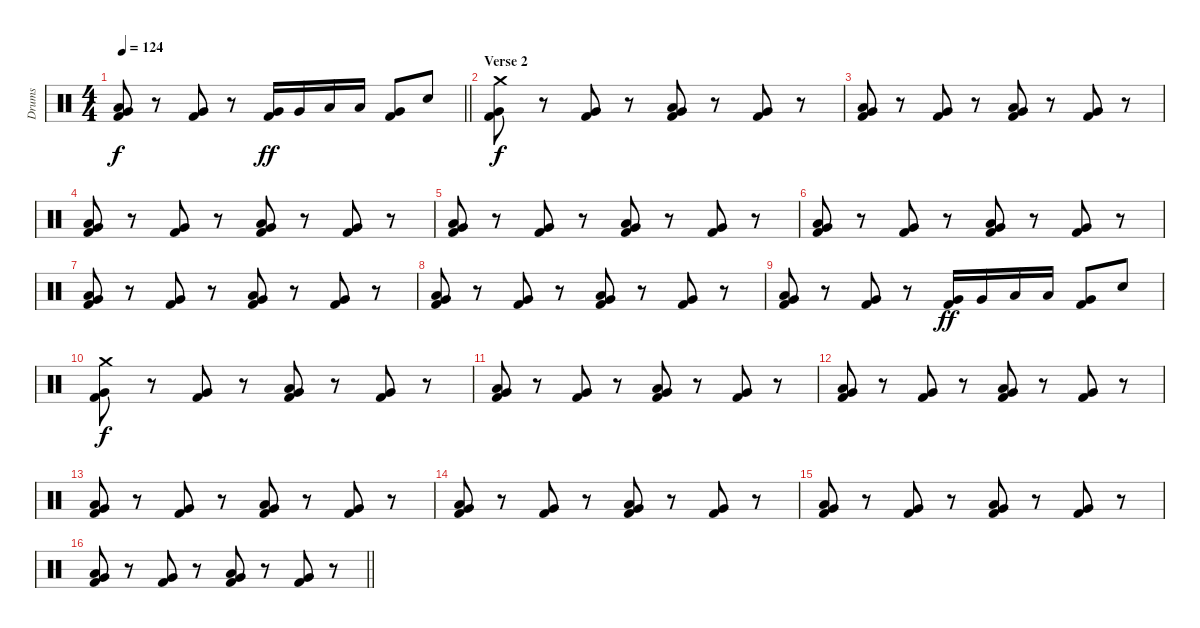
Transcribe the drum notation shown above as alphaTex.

\track ("Drums" "Drums") {instrument percussion}
\staff {score}
\articulation defaults
\ts (4 4)
\tempo 124
\clef neutral
\barLineRight lightlight
\ks c
("Very Low Tom (hit)" "Low Floor Tom (hit)" "Kick (hit) 2").8{dy f} r.8 ("Very Low Tom (hit)" "Kick (hit) 2").8 r.8 ("Very Low Tom (hit)" "Kick (hit) 2").16{dy ff} "Very Low Tom (hit)".16 "Low Floor Tom (hit)".16 "Low Floor Tom (hit)".16 ("Very Low Tom (hit)" "Kick (hit) 2").8 "Electric Snare (hit)".8 |
\section ("" "Verse 2")
("Crash medium (hit)" "Very Low Tom (hit)" "Kick (hit) 2").8{dy f} r.8 ("Very Low Tom (hit)" "Kick (hit) 2").8 r.8 ("Very Low Tom (hit)" "Low Floor Tom (hit)" "Kick (hit) 2").8 r.8 ("Very Low Tom (hit)" "Kick (hit) 2").8 r.8 |
("Very Low Tom (hit)" "Low Floor Tom (hit)" "Kick (hit) 2").8 r.8 ("Very Low Tom (hit)" "Kick (hit) 2").8 r.8 ("Very Low Tom (hit)" "Low Floor Tom (hit)" "Kick (hit) 2").8 r.8 ("Very Low Tom (hit)" "Kick (hit) 2").8 r.8 |
("Very Low Tom (hit)" "Low Floor Tom (hit)" "Kick (hit) 2").8 r.8 ("Very Low Tom (hit)" "Kick (hit) 2").8 r.8 ("Very Low Tom (hit)" "Low Floor Tom (hit)" "Kick (hit) 2").8 r.8 ("Very Low Tom (hit)" "Kick (hit) 2").8 r.8 |
("Very Low Tom (hit)" "Low Floor Tom (hit)" "Kick (hit) 2").8 r.8 ("Very Low Tom (hit)" "Kick (hit) 2").8 r.8 ("Very Low Tom (hit)" "Low Floor Tom (hit)" "Kick (hit) 2").8 r.8 ("Very Low Tom (hit)" "Kick (hit) 2").8 r.8 |
("Very Low Tom (hit)" "Low Floor Tom (hit)" "Kick (hit) 2").8 r.8 ("Very Low Tom (hit)" "Kick (hit) 2").8 r.8 ("Very Low Tom (hit)" "Low Floor Tom (hit)" "Kick (hit) 2").8 r.8 ("Very Low Tom (hit)" "Kick (hit) 2").8 r.8 |
("Very Low Tom (hit)" "Low Floor Tom (hit)" "Kick (hit) 2").8 r.8 ("Very Low Tom (hit)" "Kick (hit) 2").8 r.8 ("Very Low Tom (hit)" "Low Floor Tom (hit)" "Kick (hit) 2").8 r.8 ("Very Low Tom (hit)" "Kick (hit) 2").8 r.8 |
("Very Low Tom (hit)" "Low Floor Tom (hit)" "Kick (hit) 2").8 r.8 ("Very Low Tom (hit)" "Kick (hit) 2").8 r.8 ("Very Low Tom (hit)" "Low Floor Tom (hit)" "Kick (hit) 2").8 r.8 ("Very Low Tom (hit)" "Kick (hit) 2").8 r.8 |
("Very Low Tom (hit)" "Low Floor Tom (hit)" "Kick (hit) 2").8 r.8 ("Very Low Tom (hit)" "Kick (hit) 2").8 r.8 ("Very Low Tom (hit)" "Kick (hit) 2").16{dy ff} "Very Low Tom (hit)".16 "Low Floor Tom (hit)".16 "Low Floor Tom (hit)".16 ("Very Low Tom (hit)" "Kick (hit) 2").8 "Electric Snare (hit)".8 |
("Crash medium (hit)" "Very Low Tom (hit)" "Kick (hit) 2").8{dy f} r.8 ("Very Low Tom (hit)" "Kick (hit) 2").8 r.8 ("Very Low Tom (hit)" "Low Floor Tom (hit)" "Kick (hit) 2").8 r.8 ("Very Low Tom (hit)" "Kick (hit) 2").8 r.8 |
("Very Low Tom (hit)" "Low Floor Tom (hit)" "Kick (hit) 2").8 r.8 ("Very Low Tom (hit)" "Kick (hit) 2").8 r.8 ("Very Low Tom (hit)" "Low Floor Tom (hit)" "Kick (hit) 2").8 r.8 ("Very Low Tom (hit)" "Kick (hit) 2").8 r.8 |
("Very Low Tom (hit)" "Low Floor Tom (hit)" "Kick (hit) 2").8 r.8 ("Very Low Tom (hit)" "Kick (hit) 2").8 r.8 ("Very Low Tom (hit)" "Low Floor Tom (hit)" "Kick (hit) 2").8 r.8 ("Very Low Tom (hit)" "Kick (hit) 2").8 r.8 |
("Very Low Tom (hit)" "Low Floor Tom (hit)" "Kick (hit) 2").8 r.8 ("Very Low Tom (hit)" "Kick (hit) 2").8 r.8 ("Very Low Tom (hit)" "Low Floor Tom (hit)" "Kick (hit) 2").8 r.8 ("Very Low Tom (hit)" "Kick (hit) 2").8 r.8 |
("Very Low Tom (hit)" "Low Floor Tom (hit)" "Kick (hit) 2").8 r.8 ("Very Low Tom (hit)" "Kick (hit) 2").8 r.8 ("Very Low Tom (hit)" "Low Floor Tom (hit)" "Kick (hit) 2").8 r.8 ("Very Low Tom (hit)" "Kick (hit) 2").8 r.8 |
("Very Low Tom (hit)" "Low Floor Tom (hit)" "Kick (hit) 2").8 r.8 ("Very Low Tom (hit)" "Kick (hit) 2").8 r.8 ("Very Low Tom (hit)" "Low Floor Tom (hit)" "Kick (hit) 2").8 r.8 ("Very Low Tom (hit)" "Kick (hit) 2").8 r.8 |
\barLineRight lightlight
("Very Low Tom (hit)" "Low Floor Tom (hit)" "Kick (hit) 2").8 r.8 ("Very Low Tom (hit)" "Kick (hit) 2").8 r.8 ("Very Low Tom (hit)" "Low Floor Tom (hit)" "Kick (hit) 2").8 r.8 ("Very Low Tom (hit)" "Kick (hit) 2").8 r.8
